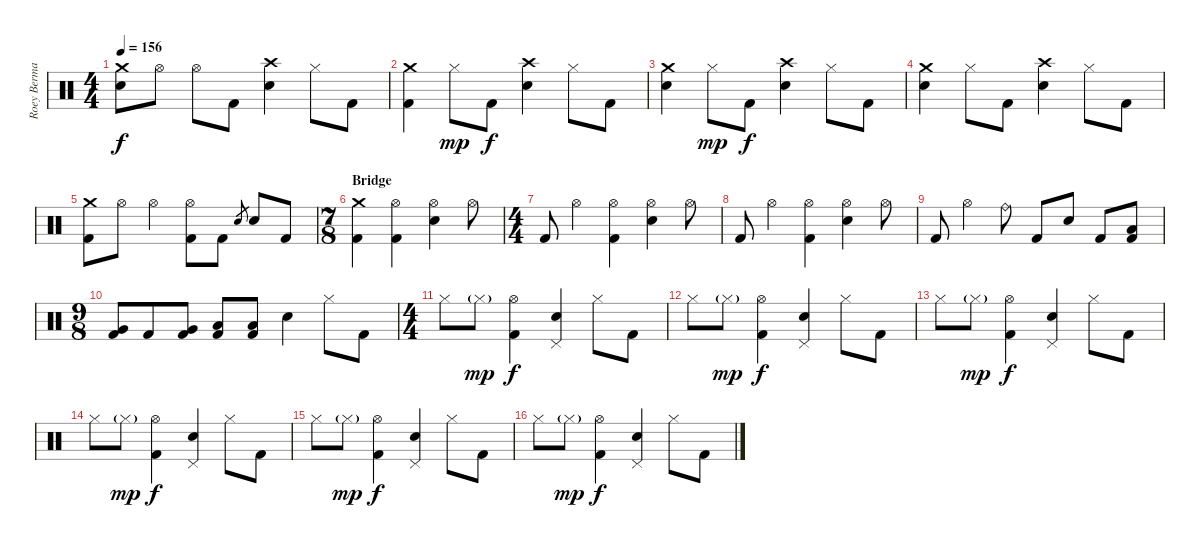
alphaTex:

\track ("Roey Berman" "Roey Berma") {instrument percussion}
\staff {score}
\articulation defaults
\ts (4 4)
\tempo 156
\clef neutral
\ks c
("Crash medium (hit)" "Electric Snare (hit)").8{dy f} "Hi-Hat (open)".8 "Hi-Hat (open)".8 "Kick (hit) 2".8 ("Crash high (hit)" "Electric Snare (hit)").4 "Hi-Hat (closed)".8 "Kick (hit) 2".8 |
("Crash medium (hit)" "Kick (hit) 2").4 "Hi-Hat (closed)".8{dy mp} "Kick (hit) 2".8{dy f} ("Crash high (hit)" "Electric Snare (hit)").4 "Hi-Hat (closed)".8 "Kick (hit) 2".8 |
("Crash medium (hit)" "Electric Snare (hit)").4 "Hi-Hat (closed)".8{dy mp} "Kick (hit) 2".8{dy f} ("Crash high (hit)" "Electric Snare (hit)").4 "Hi-Hat (closed)".8 "Kick (hit) 2".8 |
("Crash medium (hit)" "Electric Snare (hit)").4 "Hi-Hat (closed)".8 "Kick (hit) 2".8 ("Crash high (hit)" "Electric Snare (hit)").4 "Hi-Hat (closed)".8 "Kick (hit) 2".8 |
("Crash medium (hit)" "Kick (hit) 2").8 "Hi-Hat (open)".8 "Hi-Hat (open)".4 ("Hi-Hat (open)" "Kick (hit) 2").8 "Kick (hit) 2".8 "Electric Snare (hit)".8{gr} "Electric Snare (hit)".8 "Kick (hit) 2".8 |
\ts (7 8)
\section ("" "Bridge")
("Crash medium (hit)" "Kick (hit) 2").4 ("Hi-Hat (open)" "Kick (hit) 2").4 ("Hi-Hat (open)" "Electric Snare (hit)").4 "Hi-Hat (open)".8 |
\ts (4 4)
"Kick (hit) 2".8 "Hi-Hat (open)".4 ("Hi-Hat (open)" "Kick (hit) 2").4 ("Hi-Hat (open)" "Electric Snare (hit)").4 "Hi-Hat (open)".8 |
"Kick (hit) 2".8 "Hi-Hat (open)".4 ("Hi-Hat (open)" "Kick (hit) 2").4 ("Hi-Hat (open)" "Electric Snare (hit)").4 "Hi-Hat (open)".8 |
"Kick (hit) 2".8 "Hi-Hat (open)".4 "Ride (bell)".8 "Kick (hit) 2".8 "Electric Snare (hit)".8 "Kick (hit) 2".8 ("Low Tom (hit)" "Kick (hit) 2").8 |
\ts (9 8)
("Very Low Tom (hit)" "Kick (hit) 2").8 "Kick (hit) 2".8 ("Very Low Tom (hit)" "Kick (hit) 2").8 ("Low Tom (hit)" "Kick (hit) 2").8 ("Low Tom (hit)" "Kick (hit) 2").8 "Electric Snare (hit)".4 "Hi-Hat (closed)".8 "Kick (hit) 2".8 |
\ts (4 4)
"Hi-Hat (closed)".8 "Hi-Hat (closed)"{g}.8{dy mp} ("Hi-Hat (open)" "Kick (hit) 2").4{dy f} ("Pedal Hi-Hat (hit)" "Electric Snare (hit)").4 "Hi-Hat (closed)".8 "Kick (hit) 2".8 |
"Hi-Hat (closed)".8 "Hi-Hat (closed)"{g}.8{dy mp} ("Hi-Hat (open)" "Kick (hit) 2").4{dy f} ("Pedal Hi-Hat (hit)" "Electric Snare (hit)").4 "Hi-Hat (closed)".8 "Kick (hit) 2".8 |
"Hi-Hat (closed)".8 "Hi-Hat (closed)"{g}.8{dy mp} ("Hi-Hat (open)" "Kick (hit) 2").4{dy f} ("Pedal Hi-Hat (hit)" "Electric Snare (hit)").4 "Hi-Hat (closed)".8 "Kick (hit) 2".8 |
"Hi-Hat (closed)".8 "Hi-Hat (closed)"{g}.8{dy mp} ("Hi-Hat (open)" "Kick (hit) 2").4{dy f} ("Pedal Hi-Hat (hit)" "Electric Snare (hit)").4 "Hi-Hat (closed)".8 "Kick (hit) 2".8 |
"Hi-Hat (closed)".8 "Hi-Hat (closed)"{g}.8{dy mp} ("Hi-Hat (open)" "Kick (hit) 2").4{dy f} ("Pedal Hi-Hat (hit)" "Electric Snare (hit)").4 "Hi-Hat (closed)".8 "Kick (hit) 2".8 |
"Hi-Hat (closed)".8 "Hi-Hat (closed)"{g}.8{dy mp} ("Hi-Hat (open)" "Kick (hit) 2").4{dy f} ("Pedal Hi-Hat (hit)" "Electric Snare (hit)").4 "Hi-Hat (closed)".8 "Kick (hit) 2".8
